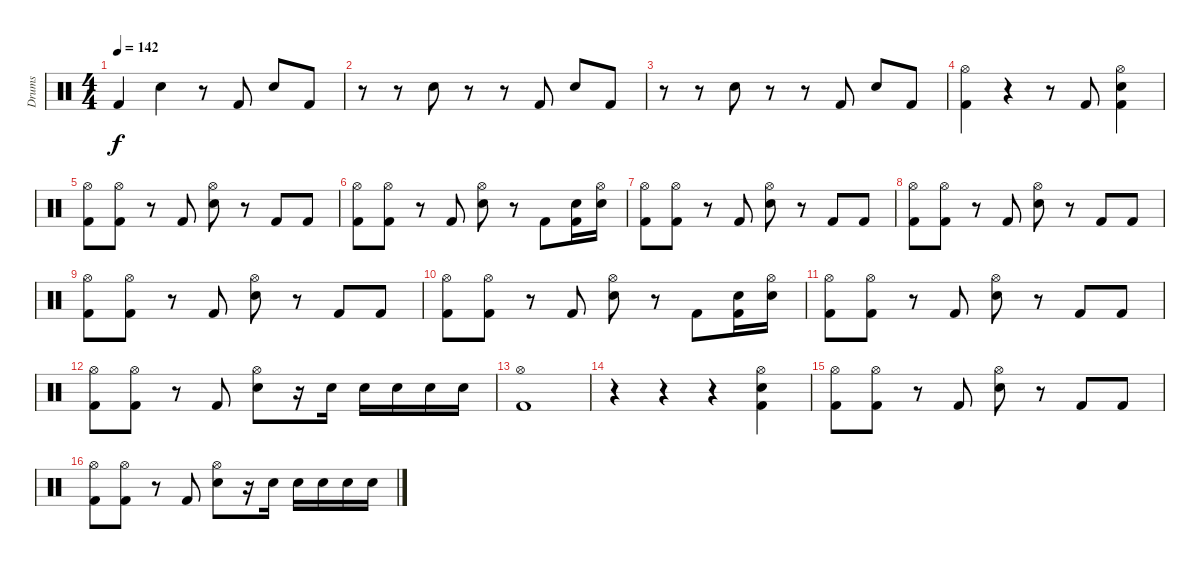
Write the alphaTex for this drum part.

\track ("Drums" "Drums") {instrument percussion}
\staff {score}
\articulation defaults
\ts (4 4)
\tempo 142
\clef neutral
\ks c "Kick (hit) 2".4{dy f} "Snare (hit) 2".4
r.8 "Kick (hit) 2".8 "Snare (hit) 2".8 "Kick (hit) 2".8 |
r.8 r.8 "Snare (hit) 2".8 r.8 r.8 "Kick (hit) 2".8 "Snare (hit) 2".8 "Kick (hit) 2".8 |
r.8 r.8 "Snare (hit) 2".8 r.8 r.8 "Kick (hit) 2".8 "Snare (hit) 2".8 "Kick (hit) 2".8 |
("Hi-Hat (open)" "Kick (hit) 2").4 r.4 r.8 "Kick (hit) 2".8 ("Hi-Hat (open)" "Snare (hit) 2" "Kick (hit) 2").4 |
("Hi-Hat (open)" "Kick (hit) 2").8 ("Hi-Hat (open)" "Kick (hit) 2").8 r.8 "Kick (hit) 2".8 ("Hi-Hat (open)" "Snare (hit) 2").8 r.8 "Kick (hit) 2".8 "Kick (hit) 2".8 |
("Hi-Hat (open)" "Kick (hit) 2").8 ("Hi-Hat (open)" "Kick (hit) 2").8 r.8 "Kick (hit) 2".8 ("Hi-Hat (open)" "Snare (hit) 2").8 r.8 "Kick (hit) 2".8 ("Snare (hit) 2" "Kick (hit) 2").16 ("Hi-Hat (open)" "Snare (hit) 2").16 |
("Hi-Hat (open)" "Kick (hit) 2").8 ("Hi-Hat (open)" "Kick (hit) 2").8 r.8 "Kick (hit) 2".8 ("Hi-Hat (open)" "Snare (hit) 2").8 r.8 "Kick (hit) 2".8 "Kick (hit) 2".8 |
("Hi-Hat (open)" "Kick (hit) 2").8 ("Hi-Hat (open)" "Kick (hit) 2").8 r.8 "Kick (hit) 2".8 ("Hi-Hat (open)" "Snare (hit) 2").8 r.8 "Kick (hit) 2".8 "Kick (hit) 2".8 |
("Hi-Hat (open)" "Kick (hit) 2").8 ("Hi-Hat (open)" "Kick (hit) 2").8 r.8 "Kick (hit) 2".8 ("Hi-Hat (open)" "Snare (hit) 2").8 r.8 "Kick (hit) 2".8 "Kick (hit) 2".8 |
("Hi-Hat (open)" "Kick (hit) 2").8 ("Hi-Hat (open)" "Kick (hit) 2").8 r.8 "Kick (hit) 2".8 ("Hi-Hat (open)" "Snare (hit) 2").8 r.8 "Kick (hit) 2".8 ("Snare (hit) 2" "Kick (hit) 2").16 ("Hi-Hat (open)" "Snare (hit) 2").16 |
("Hi-Hat (open)" "Kick (hit) 2").8 ("Hi-Hat (open)" "Kick (hit) 2").8 r.8 "Kick (hit) 2".8 ("Hi-Hat (open)" "Snare (hit) 2").8 r.8 "Kick (hit) 2".8 "Kick (hit) 2".8 |
("Hi-Hat (open)" "Kick (hit) 2").8 ("Hi-Hat (open)" "Kick (hit) 2").8 r.8 "Kick (hit) 2".8 ("Hi-Hat (open)" "Snare (hit) 2").8 r.16 "Snare (hit) 2".16 "Snare (hit) 2".16 "Snare (hit) 2".16 "Snare (hit) 2".16 "Snare (hit) 2".16 |
("Hi-Hat (open)" "Kick (hit) 2").1 |
r.4 r.4 r.4 ("Hi-Hat (open)" "Snare (hit) 2" "Kick (hit) 2").4 |
("Hi-Hat (open)" "Kick (hit) 2").8 ("Hi-Hat (open)" "Kick (hit) 2").8 r.8 "Kick (hit) 2".8 ("Hi-Hat (open)" "Snare (hit) 2").8 r.8 "Kick (hit) 2".8 "Kick (hit) 2".8 |
("Hi-Hat (open)" "Kick (hit) 2").8 ("Hi-Hat (open)" "Kick (hit) 2").8 r.8 "Kick (hit) 2".8 ("Hi-Hat (open)" "Snare (hit) 2").8 r.16 "Snare (hit) 2".16 "Snare (hit) 2".16 "Snare (hit) 2".16 "Snare (hit) 2".16 "Snare (hit) 2".16
